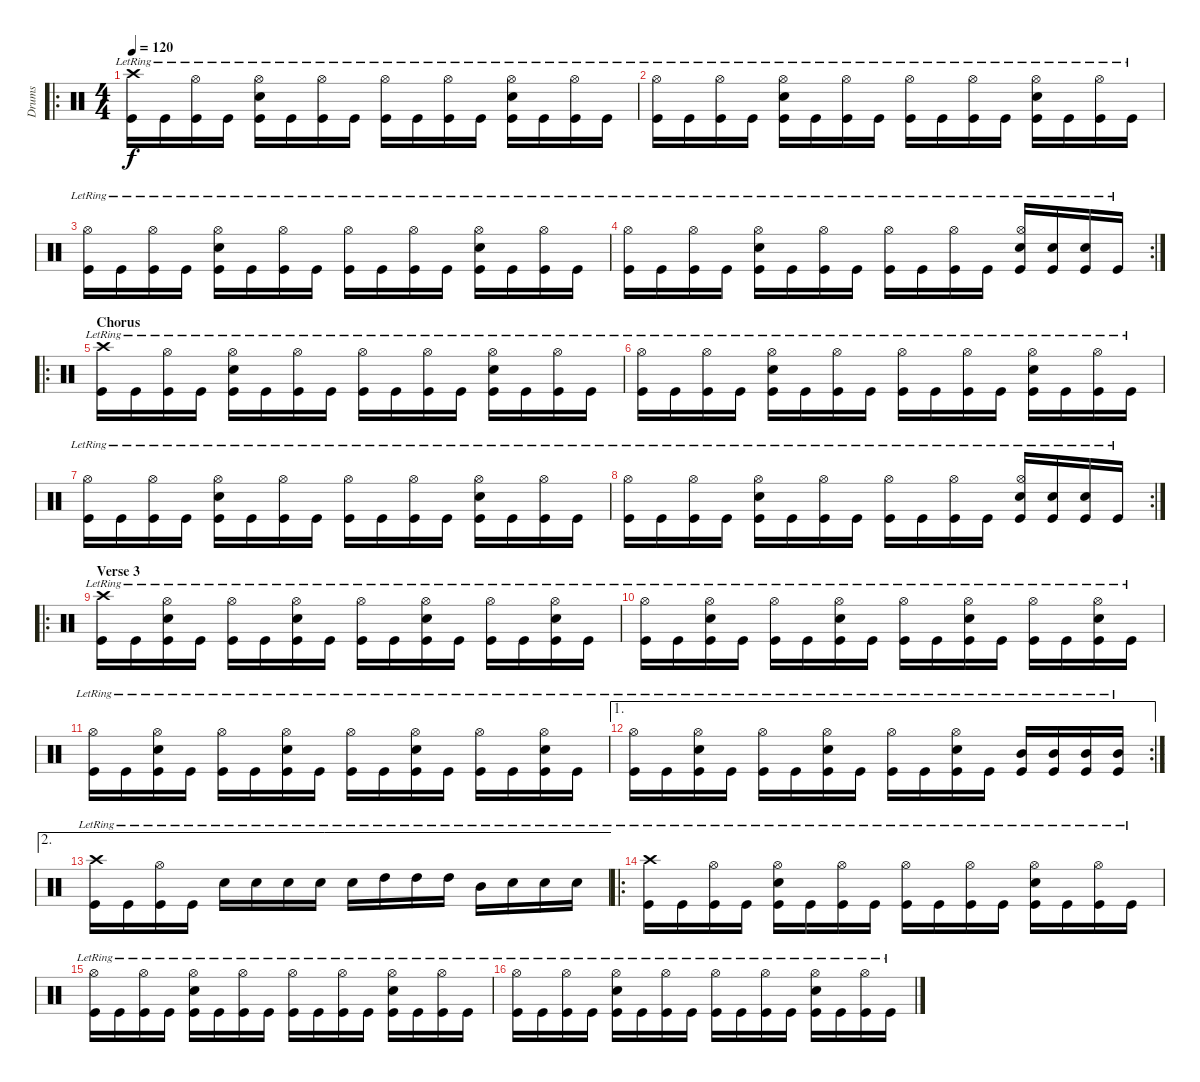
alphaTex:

\track ("Drums" "Drums") {instrument percussion}
\staff {score}
\articulation defaults
\ro
\ts (4 4)
\tempo 120
\clef neutral
\ks c
("Crash high (hit)"{lr} "Kick (hit)"{lr}).16{dy f} "Kick (hit)"{lr}.16 ("Hi-Hat (open)"{lr} "Kick (hit)"{lr}).16 "Kick (hit)"{lr}.16 ("Hi-Hat (open)"{lr} "Snare (hit) 2"{lr} "Kick (hit)"{lr}).16 "Kick (hit)"{lr}.16 ("Hi-Hat (open)"{lr} "Kick (hit)"{lr}).16 "Kick (hit)"{lr}.16 ("Hi-Hat (open)"{lr} "Kick (hit)"{lr}).16 "Kick (hit)"{lr}.16 ("Hi-Hat (open)"{lr} "Kick (hit)"{lr}).16 "Kick (hit)"{lr}.16 ("Hi-Hat (open)"{lr} "Snare (hit) 2"{lr} "Kick (hit)"{lr}).16 "Kick (hit)"{lr}.16 ("Hi-Hat (open)"{lr} "Kick (hit)"{lr}).16 "Kick (hit)"{lr}.16 |
("Hi-Hat (open)"{lr} "Kick (hit)"{lr}).16 "Kick (hit)"{lr}.16 ("Hi-Hat (open)"{lr} "Kick (hit)"{lr}).16 "Kick (hit)"{lr}.16 ("Hi-Hat (open)"{lr} "Snare (hit) 2"{lr} "Kick (hit)"{lr}).16 "Kick (hit)"{lr}.16 ("Hi-Hat (open)"{lr} "Kick (hit)"{lr}).16 "Kick (hit)"{lr}.16 ("Hi-Hat (open)"{lr} "Kick (hit)"{lr}).16 "Kick (hit)"{lr}.16 ("Hi-Hat (open)"{lr} "Kick (hit)"{lr}).16 "Kick (hit)"{lr}.16 ("Hi-Hat (open)"{lr} "Snare (hit) 2"{lr} "Kick (hit)"{lr}).16 "Kick (hit)"{lr}.16 ("Hi-Hat (open)"{lr} "Kick (hit)"{lr}).16 "Kick (hit)"{lr}.16 |
("Hi-Hat (open)"{lr} "Kick (hit)"{lr}).16 "Kick (hit)"{lr}.16 ("Hi-Hat (open)"{lr} "Kick (hit)"{lr}).16 "Kick (hit)"{lr}.16 ("Hi-Hat (open)"{lr} "Snare (hit) 2"{lr} "Kick (hit)"{lr}).16 "Kick (hit)"{lr}.16 ("Hi-Hat (open)"{lr} "Kick (hit)"{lr}).16 "Kick (hit)"{lr}.16 ("Hi-Hat (open)"{lr} "Kick (hit)"{lr}).16 "Kick (hit)"{lr}.16 ("Hi-Hat (open)"{lr} "Kick (hit)"{lr}).16 "Kick (hit)"{lr}.16 ("Hi-Hat (open)"{lr} "Snare (hit) 2"{lr} "Kick (hit)"{lr}).16 "Kick (hit)"{lr}.16 ("Hi-Hat (open)"{lr} "Kick (hit)"{lr}).16 "Kick (hit)"{lr}.16 |
\rc 2
("Hi-Hat (open)"{lr} "Kick (hit)"{lr}).16 "Kick (hit)"{lr}.16 ("Hi-Hat (open)"{lr} "Kick (hit)"{lr}).16 "Kick (hit)"{lr}.16 ("Hi-Hat (open)"{lr} "Snare (hit) 2"{lr} "Kick (hit)"{lr}).16 "Kick (hit)"{lr}.16 ("Hi-Hat (open)"{lr} "Kick (hit)"{lr}).16 "Kick (hit)"{lr}.16 ("Hi-Hat (open)"{lr} "Kick (hit)"{lr}).16 "Kick (hit)"{lr}.16 ("Hi-Hat (open)"{lr} "Kick (hit)"{lr}).16 "Kick (hit)"{lr}.16 ("Hi-Hat (open)"{lr} "Snare (hit) 2"{lr} "Kick (hit)"{lr}).16 ("Snare (hit) 2"{lr} "Kick (hit)"{lr}).16 ("Snare (hit) 2"{lr} "Kick (hit)"{lr}).16 "Kick (hit)"{lr}.16 |
\ro
\section ("" "Chorus")
("Crash high (hit)"{lr} "Kick (hit)"{lr}).16 "Kick (hit)"{lr}.16 ("Hi-Hat (open)"{lr} "Kick (hit)"{lr}).16 "Kick (hit)"{lr}.16 ("Hi-Hat (open)"{lr} "Snare (hit) 2"{lr} "Kick (hit)"{lr}).16 "Kick (hit)"{lr}.16 ("Hi-Hat (open)"{lr} "Kick (hit)"{lr}).16 "Kick (hit)"{lr}.16 ("Hi-Hat (open)"{lr} "Kick (hit)"{lr}).16 "Kick (hit)"{lr}.16 ("Hi-Hat (open)"{lr} "Kick (hit)"{lr}).16 "Kick (hit)"{lr}.16 ("Hi-Hat (open)"{lr} "Snare (hit) 2"{lr} "Kick (hit)"{lr}).16 "Kick (hit)"{lr}.16 ("Hi-Hat (open)"{lr} "Kick (hit)"{lr}).16 "Kick (hit)"{lr}.16 |
("Hi-Hat (open)"{lr} "Kick (hit)"{lr}).16 "Kick (hit)"{lr}.16 ("Hi-Hat (open)"{lr} "Kick (hit)"{lr}).16 "Kick (hit)"{lr}.16 ("Hi-Hat (open)"{lr} "Snare (hit) 2"{lr} "Kick (hit)"{lr}).16 "Kick (hit)"{lr}.16 ("Hi-Hat (open)"{lr} "Kick (hit)"{lr}).16 "Kick (hit)"{lr}.16 ("Hi-Hat (open)"{lr} "Kick (hit)"{lr}).16 "Kick (hit)"{lr}.16 ("Hi-Hat (open)"{lr} "Kick (hit)"{lr}).16 "Kick (hit)"{lr}.16 ("Hi-Hat (open)"{lr} "Snare (hit) 2"{lr} "Kick (hit)"{lr}).16 "Kick (hit)"{lr}.16 ("Hi-Hat (open)"{lr} "Kick (hit)"{lr}).16 "Kick (hit)"{lr}.16 |
("Hi-Hat (open)"{lr} "Kick (hit)"{lr}).16 "Kick (hit)"{lr}.16 ("Hi-Hat (open)"{lr} "Kick (hit)"{lr}).16 "Kick (hit)"{lr}.16 ("Hi-Hat (open)"{lr} "Snare (hit) 2"{lr} "Kick (hit)"{lr}).16 "Kick (hit)"{lr}.16 ("Hi-Hat (open)"{lr} "Kick (hit)"{lr}).16 "Kick (hit)"{lr}.16 ("Hi-Hat (open)"{lr} "Kick (hit)"{lr}).16 "Kick (hit)"{lr}.16 ("Hi-Hat (open)"{lr} "Kick (hit)"{lr}).16 "Kick (hit)"{lr}.16 ("Hi-Hat (open)"{lr} "Snare (hit) 2"{lr} "Kick (hit)"{lr}).16 "Kick (hit)"{lr}.16 ("Hi-Hat (open)"{lr} "Kick (hit)"{lr}).16 "Kick (hit)"{lr}.16 |
\rc 2
("Hi-Hat (open)"{lr} "Kick (hit)"{lr}).16 "Kick (hit)"{lr}.16 ("Hi-Hat (open)"{lr} "Kick (hit)"{lr}).16 "Kick (hit)"{lr}.16 ("Hi-Hat (open)"{lr} "Snare (hit) 2"{lr} "Kick (hit)"{lr}).16 "Kick (hit)"{lr}.16 ("Hi-Hat (open)"{lr} "Kick (hit)"{lr}).16 "Kick (hit)"{lr}.16 ("Hi-Hat (open)"{lr} "Kick (hit)"{lr}).16 "Kick (hit)"{lr}.16 ("Hi-Hat (open)"{lr} "Kick (hit)"{lr}).16 "Kick (hit)"{lr}.16 ("Hi-Hat (open)"{lr} "Snare (hit) 2"{lr} "Kick (hit)"{lr}).16 ("Snare (hit) 2"{lr} "Kick (hit)"{lr}).16 ("Snare (hit) 2"{lr} "Kick (hit)"{lr}).16 "Kick (hit)"{lr}.16 |
\ro
\section ("" "Verse 3")
("Crash high (hit)"{lr} "Kick (hit)"{lr}).16 "Kick (hit)"{lr}.16 ("Hi-Hat (open)"{lr} "Snare (hit) 2"{lr} "Kick (hit)"{lr}).16 "Kick (hit)"{lr}.16 ("Hi-Hat (open)"{lr} "Kick (hit)"{lr}).16 "Kick (hit)"{lr}.16 ("Hi-Hat (open)"{lr} "Snare (hit) 2"{lr} "Kick (hit)"{lr}).16 "Kick (hit)"{lr}.16 ("Hi-Hat (open)"{lr} "Kick (hit)"{lr}).16 "Kick (hit)"{lr}.16 ("Hi-Hat (open)"{lr} "Snare (hit) 2"{lr} "Kick (hit)"{lr}).16 "Kick (hit)"{lr}.16 ("Hi-Hat (open)"{lr} "Kick (hit)"{lr}).16 "Kick (hit)"{lr}.16 ("Hi-Hat (open)"{lr} "Snare (hit) 2"{lr} "Kick (hit)"{lr}).16 "Kick (hit)"{lr}.16 |
("Hi-Hat (open)"{lr} "Kick (hit)"{lr}).16 "Kick (hit)"{lr}.16 ("Hi-Hat (open)"{lr} "Snare (hit) 2"{lr} "Kick (hit)"{lr}).16 "Kick (hit)"{lr}.16 ("Hi-Hat (open)"{lr} "Kick (hit)"{lr}).16 "Kick (hit)"{lr}.16 ("Hi-Hat (open)"{lr} "Snare (hit) 2"{lr} "Kick (hit)"{lr}).16 "Kick (hit)"{lr}.16 ("Hi-Hat (open)"{lr} "Kick (hit)"{lr}).16 "Kick (hit)"{lr}.16 ("Hi-Hat (open)"{lr} "Snare (hit) 2"{lr} "Kick (hit)"{lr}).16 "Kick (hit)"{lr}.16 ("Hi-Hat (open)"{lr} "Kick (hit)"{lr}).16 "Kick (hit)"{lr}.16 ("Hi-Hat (open)"{lr} "Snare (hit) 2"{lr} "Kick (hit)"{lr}).16 "Kick (hit)"{lr}.16 |
("Hi-Hat (open)"{lr} "Kick (hit)"{lr}).16 "Kick (hit)"{lr}.16 ("Hi-Hat (open)"{lr} "Snare (hit) 2"{lr} "Kick (hit)"{lr}).16 "Kick (hit)"{lr}.16 ("Hi-Hat (open)"{lr} "Kick (hit)"{lr}).16 "Kick (hit)"{lr}.16 ("Hi-Hat (open)"{lr} "Snare (hit) 2"{lr} "Kick (hit)"{lr}).16 "Kick (hit)"{lr}.16 ("Hi-Hat (open)"{lr} "Kick (hit)"{lr}).16 "Kick (hit)"{lr}.16 ("Hi-Hat (open)"{lr} "Snare (hit) 2"{lr} "Kick (hit)"{lr}).16 "Kick (hit)"{lr}.16 ("Hi-Hat (open)"{lr} "Kick (hit)"{lr}).16 "Kick (hit)"{lr}.16 ("Hi-Hat (open)"{lr} "Snare (hit) 2"{lr} "Kick (hit)"{lr}).16 "Kick (hit)"{lr}.16 |
\ae 1
\rc 2
("Hi-Hat (open)"{lr} "Kick (hit)"{lr}).16 "Kick (hit)"{lr}.16 ("Hi-Hat (open)"{lr} "Snare (hit) 2"{lr} "Kick (hit)"{lr}).16 "Kick (hit)"{lr}.16 ("Hi-Hat (open)"{lr} "Kick (hit)"{lr}).16 "Kick (hit)"{lr}.16 ("Hi-Hat (open)"{lr} "Snare (hit) 2"{lr} "Kick (hit)"{lr}).16 "Kick (hit)"{lr}.16 ("Hi-Hat (open)"{lr} "Kick (hit)"{lr}).16 "Kick (hit)"{lr}.16 ("Hi-Hat (open)"{lr} "Snare (hit) 2"{lr} "Kick (hit)"{lr}).16 "Kick (hit)"{lr}.16 ("Mid Tom (hit)"{lr} "Kick (hit)"{lr}).16 ("Mid Tom (hit)"{lr} "Kick (hit)"{lr}).16 ("Mid Tom (hit)"{lr} "Kick (hit)"{lr}).16 ("Mid Tom (hit)"{lr} "Kick (hit)"{lr}).16 |
\ae 2
("Crash high (hit)"{lr} "Kick (hit)"{lr}).16 "Kick (hit)"{lr}.16 ("Hi-Hat (open)"{lr} "Kick (hit)"{lr}).16 "Kick (hit)"{lr}.16 "Snare (hit) 2"{lr}.16 "Snare (hit) 2"{lr}.16 "Snare (hit) 2"{lr}.16 "Snare (hit) 2"{lr}.16 "Snare (hit) 2"{lr}.16 "High Tom (hit)"{lr}.16 "High Tom (hit)"{lr}.16 "High Tom (hit)"{lr}.16 "Mid Tom (hit)"{lr}.16 "Snare (hit) 2"{lr}.16 "Snare (hit) 2"{lr}.16 "Snare (hit) 2"{lr}.16 |
\ro
("Crash high (hit)"{lr} "Kick (hit)"{lr}).16 "Kick (hit)"{lr}.16 ("Hi-Hat (open)"{lr} "Kick (hit)"{lr}).16 "Kick (hit)"{lr}.16 ("Hi-Hat (open)"{lr} "Snare (hit) 2"{lr} "Kick (hit)"{lr}).16 "Kick (hit)"{lr}.16 ("Hi-Hat (open)"{lr} "Kick (hit)"{lr}).16 "Kick (hit)"{lr}.16 ("Hi-Hat (open)"{lr} "Kick (hit)"{lr}).16 "Kick (hit)"{lr}.16 ("Hi-Hat (open)"{lr} "Kick (hit)"{lr}).16 "Kick (hit)"{lr}.16 ("Hi-Hat (open)"{lr} "Snare (hit) 2"{lr} "Kick (hit)"{lr}).16 "Kick (hit)"{lr}.16 ("Hi-Hat (open)"{lr} "Kick (hit)"{lr}).16 "Kick (hit)"{lr}.16 |
("Hi-Hat (open)"{lr} "Kick (hit)"{lr}).16 "Kick (hit)"{lr}.16 ("Hi-Hat (open)"{lr} "Kick (hit)"{lr}).16 "Kick (hit)"{lr}.16 ("Hi-Hat (open)"{lr} "Snare (hit) 2"{lr} "Kick (hit)"{lr}).16 "Kick (hit)"{lr}.16 ("Hi-Hat (open)"{lr} "Kick (hit)"{lr}).16 "Kick (hit)"{lr}.16 ("Hi-Hat (open)"{lr} "Kick (hit)"{lr}).16 "Kick (hit)"{lr}.16 ("Hi-Hat (open)"{lr} "Kick (hit)"{lr}).16 "Kick (hit)"{lr}.16 ("Hi-Hat (open)"{lr} "Snare (hit) 2"{lr} "Kick (hit)"{lr}).16 "Kick (hit)"{lr}.16 ("Hi-Hat (open)"{lr} "Kick (hit)"{lr}).16 "Kick (hit)"{lr}.16 |
("Hi-Hat (open)"{lr} "Kick (hit)"{lr}).16 "Kick (hit)"{lr}.16 ("Hi-Hat (open)"{lr} "Kick (hit)"{lr}).16 "Kick (hit)"{lr}.16 ("Hi-Hat (open)"{lr} "Snare (hit) 2"{lr} "Kick (hit)"{lr}).16 "Kick (hit)"{lr}.16 ("Hi-Hat (open)"{lr} "Kick (hit)"{lr}).16 "Kick (hit)"{lr}.16 ("Hi-Hat (open)"{lr} "Kick (hit)"{lr}).16 "Kick (hit)"{lr}.16 ("Hi-Hat (open)"{lr} "Kick (hit)"{lr}).16 "Kick (hit)"{lr}.16 ("Hi-Hat (open)"{lr} "Snare (hit) 2"{lr} "Kick (hit)"{lr}).16 "Kick (hit)"{lr}.16 ("Hi-Hat (open)"{lr} "Kick (hit)"{lr}).16 "Kick (hit)"{lr}.16
